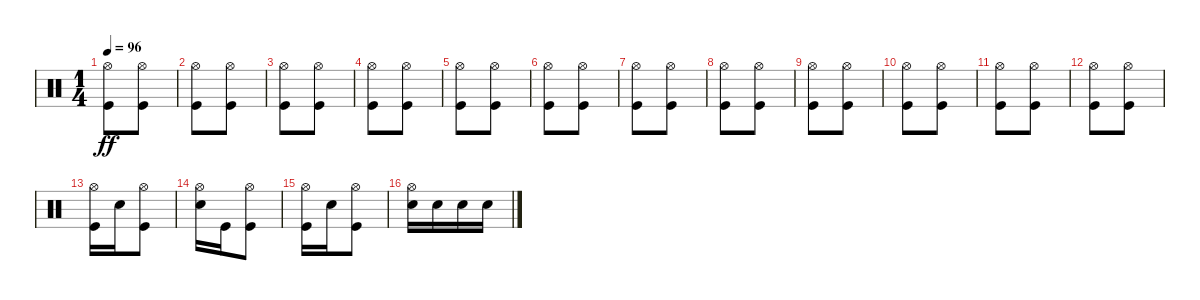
\track "" {instrument percussion}
\staff {score}
\articulation defaults
\ts (1 4)
\tempo 96
\clef neutral
\ks c
("Kick (hit)" "Hi-Hat (open)").8{dy ff} ("Kick (hit)" "Hi-Hat (open)").8 |
("Kick (hit)" "Hi-Hat (open)").8 ("Kick (hit)" "Hi-Hat (open)").8 |
("Kick (hit)" "Hi-Hat (open)").8 ("Kick (hit)" "Hi-Hat (open)").8 |
("Kick (hit)" "Hi-Hat (open)").8 ("Kick (hit)" "Hi-Hat (open)").8 |
("Kick (hit)" "Hi-Hat (open)").8 ("Kick (hit)" "Hi-Hat (open)").8 |
("Kick (hit)" "Hi-Hat (open)").8 ("Kick (hit)" "Hi-Hat (open)").8 |
("Kick (hit)" "Hi-Hat (open)").8 ("Kick (hit)" "Hi-Hat (open)").8 |
("Kick (hit)" "Hi-Hat (open)").8 ("Kick (hit)" "Hi-Hat (open)").8 |
("Kick (hit)" "Hi-Hat (open)").8 ("Kick (hit)" "Hi-Hat (open)").8 |
("Kick (hit)" "Hi-Hat (open)").8 ("Kick (hit)" "Hi-Hat (open)").8 |
("Kick (hit)" "Hi-Hat (open)").8 ("Kick (hit)" "Hi-Hat (open)").8 |
("Kick (hit)" "Hi-Hat (open)").8 ("Kick (hit)" "Hi-Hat (open)").8 |
("Kick (hit)" "Hi-Hat (open)").16 "Snare (hit) 2".16 ("Kick (hit)" "Hi-Hat (open)").8 |
("Snare (hit) 2" "Hi-Hat (open)").16 "Kick (hit)".16 ("Kick (hit)" "Hi-Hat (open)").8 |
("Kick (hit)" "Hi-Hat (open)").16 "Snare (hit) 2".16 ("Kick (hit)" "Hi-Hat (open)").8 |
("Snare (hit) 2" "Hi-Hat (open)").16 "Snare (hit) 2".16 "Snare (hit) 2".16 "Snare (hit) 2".16
